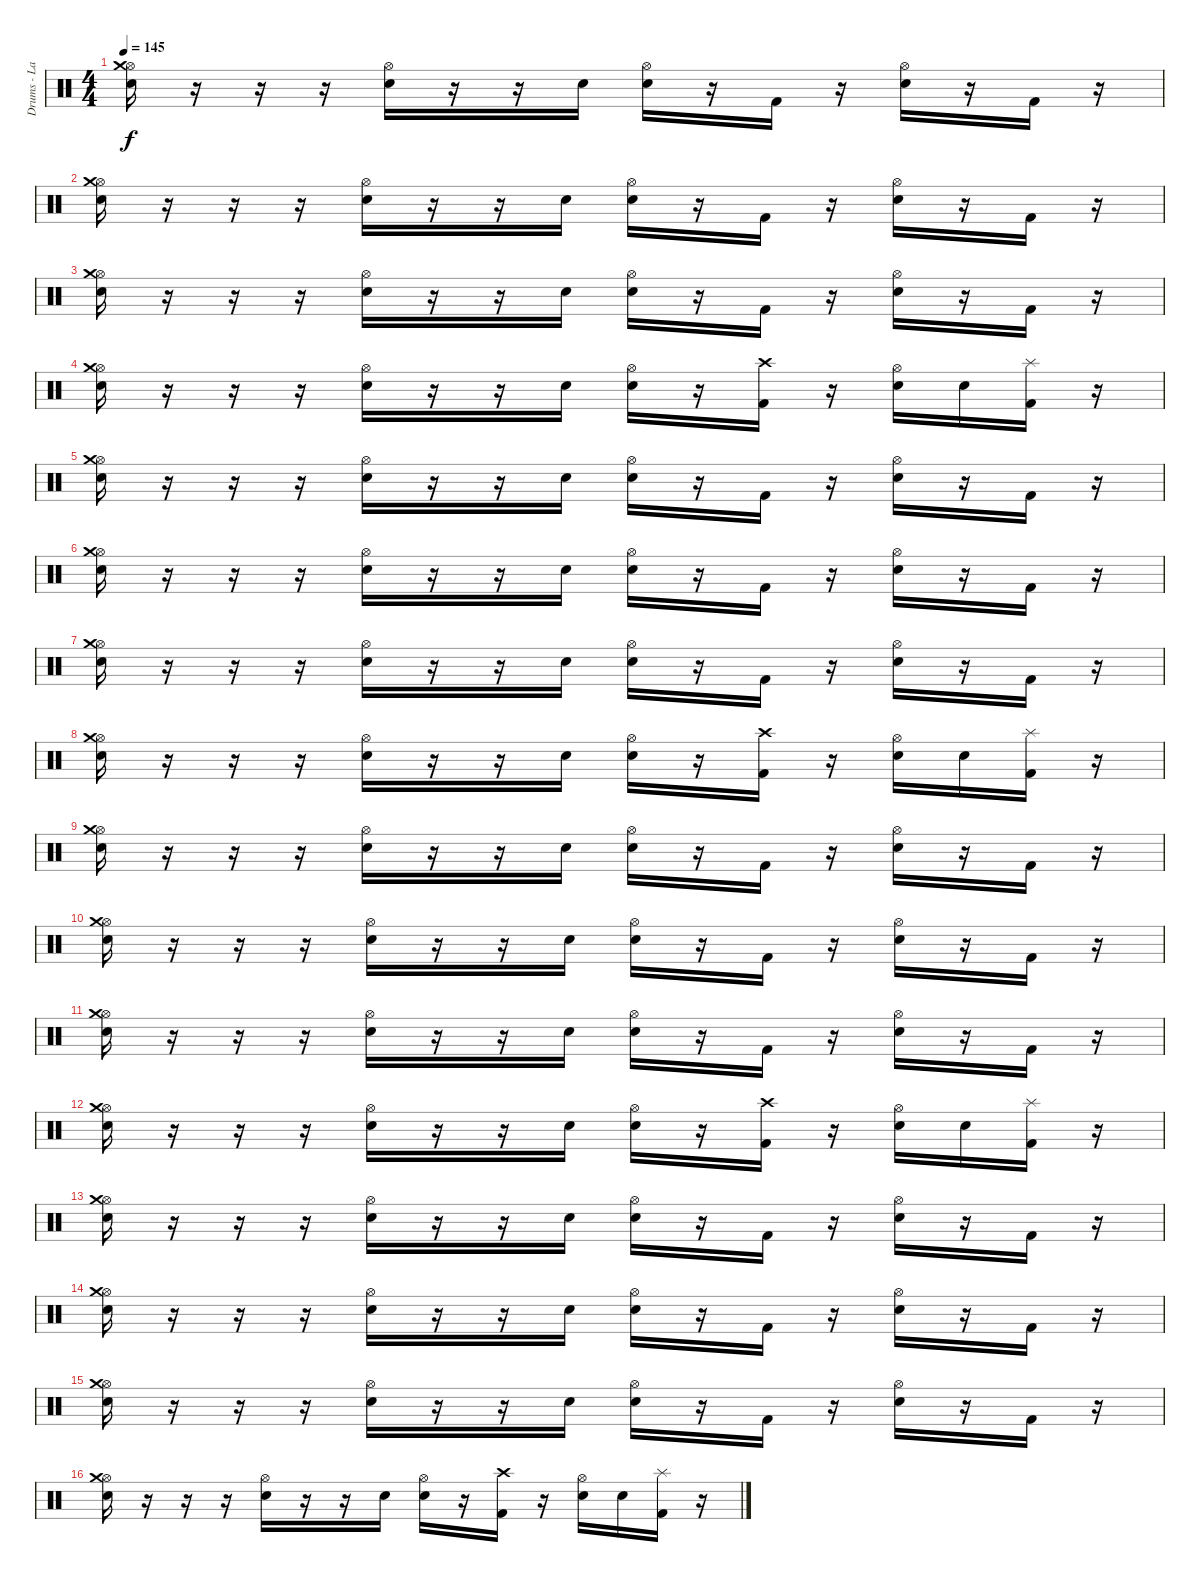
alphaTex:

\track ("Drums - Larry Gorman" "Drums - La") {instrument percussion}
\staff {score}
\articulation defaults
\ts (4 4)
\tempo 145
\clef neutral
\ks c
("Hi-Hat (open)" "Crash medium (hit)" "Electric Snare (hit)").16{dy f} r.16 r.16 r.16 ("Hi-Hat (open)" "Electric Snare (hit)").16 r.16 r.16 "Electric Snare (hit)".16 ("Hi-Hat (open)" "Electric Snare (hit)").16 r.16 "Kick (hit) 2".16 r.16 ("Hi-Hat (open)" "Electric Snare (hit)").16 r.16 "Kick (hit) 2".16 r.16 |
("Hi-Hat (open)" "Crash medium (hit)" "Electric Snare (hit)").16 r.16 r.16 r.16 ("Hi-Hat (open)" "Electric Snare (hit)").16 r.16 r.16 "Electric Snare (hit)".16 ("Hi-Hat (open)" "Electric Snare (hit)").16 r.16 "Kick (hit) 2".16 r.16 ("Hi-Hat (open)" "Electric Snare (hit)").16 r.16 "Kick (hit) 2".16 r.16 |
("Hi-Hat (open)" "Crash medium (hit)" "Electric Snare (hit)").16 r.16 r.16 r.16 ("Hi-Hat (open)" "Electric Snare (hit)").16 r.16 r.16 "Electric Snare (hit)".16 ("Hi-Hat (open)" "Electric Snare (hit)").16 r.16 "Kick (hit) 2".16 r.16 ("Hi-Hat (open)" "Electric Snare (hit)").16 r.16 "Kick (hit) 2".16 r.16 |
("Hi-Hat (open)" "Crash medium (hit)" "Electric Snare (hit)").16 r.16 r.16 r.16 ("Hi-Hat (open)" "Electric Snare (hit)").16 r.16 r.16 "Electric Snare (hit)".16 ("Hi-Hat (open)" "Electric Snare (hit)").16 r.16 ("Crash high (hit)" "Kick (hit) 2").16 r.16 ("Hi-Hat (open)" "Electric Snare (hit)").16 "Electric Snare (hit)".16 ("Splash (hit)" "Kick (hit) 2").16 r.16 |
("Hi-Hat (open)" "Crash medium (hit)" "Electric Snare (hit)").16 r.16 r.16 r.16 ("Hi-Hat (open)" "Electric Snare (hit)").16 r.16 r.16 "Electric Snare (hit)".16 ("Hi-Hat (open)" "Electric Snare (hit)").16 r.16 "Kick (hit) 2".16 r.16 ("Hi-Hat (open)" "Electric Snare (hit)").16 r.16 "Kick (hit) 2".16 r.16 |
("Hi-Hat (open)" "Crash medium (hit)" "Electric Snare (hit)").16 r.16 r.16 r.16 ("Hi-Hat (open)" "Electric Snare (hit)").16 r.16 r.16 "Electric Snare (hit)".16 ("Hi-Hat (open)" "Electric Snare (hit)").16 r.16 "Kick (hit) 2".16 r.16 ("Hi-Hat (open)" "Electric Snare (hit)").16 r.16 "Kick (hit) 2".16 r.16 |
("Hi-Hat (open)" "Crash medium (hit)" "Electric Snare (hit)").16 r.16 r.16 r.16 ("Hi-Hat (open)" "Electric Snare (hit)").16 r.16 r.16 "Electric Snare (hit)".16 ("Hi-Hat (open)" "Electric Snare (hit)").16 r.16 "Kick (hit) 2".16 r.16 ("Hi-Hat (open)" "Electric Snare (hit)").16 r.16 "Kick (hit) 2".16 r.16 |
("Hi-Hat (open)" "Crash medium (hit)" "Electric Snare (hit)").16 r.16 r.16 r.16 ("Hi-Hat (open)" "Electric Snare (hit)").16 r.16 r.16 "Electric Snare (hit)".16 ("Hi-Hat (open)" "Electric Snare (hit)").16 r.16 ("Crash high (hit)" "Kick (hit) 2").16 r.16 ("Hi-Hat (open)" "Electric Snare (hit)").16 "Electric Snare (hit)".16 ("Splash (hit)" "Kick (hit) 2").16 r.16 |
("Hi-Hat (open)" "Crash medium (hit)" "Electric Snare (hit)").16 r.16 r.16 r.16 ("Hi-Hat (open)" "Electric Snare (hit)").16 r.16 r.16 "Electric Snare (hit)".16 ("Hi-Hat (open)" "Electric Snare (hit)").16 r.16 "Kick (hit) 2".16 r.16 ("Hi-Hat (open)" "Electric Snare (hit)").16 r.16 "Kick (hit) 2".16 r.16 |
("Hi-Hat (open)" "Crash medium (hit)" "Electric Snare (hit)").16 r.16 r.16 r.16 ("Hi-Hat (open)" "Electric Snare (hit)").16 r.16 r.16 "Electric Snare (hit)".16 ("Hi-Hat (open)" "Electric Snare (hit)").16 r.16 "Kick (hit) 2".16 r.16 ("Hi-Hat (open)" "Electric Snare (hit)").16 r.16 "Kick (hit) 2".16 r.16 |
("Hi-Hat (open)" "Crash medium (hit)" "Electric Snare (hit)").16 r.16 r.16 r.16 ("Hi-Hat (open)" "Electric Snare (hit)").16 r.16 r.16 "Electric Snare (hit)".16 ("Hi-Hat (open)" "Electric Snare (hit)").16 r.16 "Kick (hit) 2".16 r.16 ("Hi-Hat (open)" "Electric Snare (hit)").16 r.16 "Kick (hit) 2".16 r.16 |
("Hi-Hat (open)" "Crash medium (hit)" "Electric Snare (hit)").16 r.16 r.16 r.16 ("Hi-Hat (open)" "Electric Snare (hit)").16 r.16 r.16 "Electric Snare (hit)".16 ("Hi-Hat (open)" "Electric Snare (hit)").16 r.16 ("Crash high (hit)" "Kick (hit) 2").16 r.16 ("Hi-Hat (open)" "Electric Snare (hit)").16 "Electric Snare (hit)".16 ("Splash (hit)" "Kick (hit) 2").16 r.16 |
("Hi-Hat (open)" "Crash medium (hit)" "Electric Snare (hit)").16 r.16 r.16 r.16 ("Hi-Hat (open)" "Electric Snare (hit)").16 r.16 r.16 "Electric Snare (hit)".16 ("Hi-Hat (open)" "Electric Snare (hit)").16 r.16 "Kick (hit) 2".16 r.16 ("Hi-Hat (open)" "Electric Snare (hit)").16 r.16 "Kick (hit) 2".16 r.16 |
("Hi-Hat (open)" "Crash medium (hit)" "Electric Snare (hit)").16 r.16 r.16 r.16 ("Hi-Hat (open)" "Electric Snare (hit)").16 r.16 r.16 "Electric Snare (hit)".16 ("Hi-Hat (open)" "Electric Snare (hit)").16 r.16 "Kick (hit) 2".16 r.16 ("Hi-Hat (open)" "Electric Snare (hit)").16 r.16 "Kick (hit) 2".16 r.16 |
("Hi-Hat (open)" "Crash medium (hit)" "Electric Snare (hit)").16 r.16 r.16 r.16 ("Hi-Hat (open)" "Electric Snare (hit)").16 r.16 r.16 "Electric Snare (hit)".16 ("Hi-Hat (open)" "Electric Snare (hit)").16 r.16 "Kick (hit) 2".16 r.16 ("Hi-Hat (open)" "Electric Snare (hit)").16 r.16 "Kick (hit) 2".16 r.16 |
("Hi-Hat (open)" "Crash medium (hit)" "Electric Snare (hit)").16 r.16 r.16 r.16 ("Hi-Hat (open)" "Electric Snare (hit)").16 r.16 r.16 "Electric Snare (hit)".16 ("Hi-Hat (open)" "Electric Snare (hit)").16 r.16 ("Crash high (hit)" "Kick (hit) 2").16 r.16 ("Hi-Hat (open)" "Electric Snare (hit)").16 "Electric Snare (hit)".16 ("Splash (hit)" "Kick (hit) 2").16 r.16
